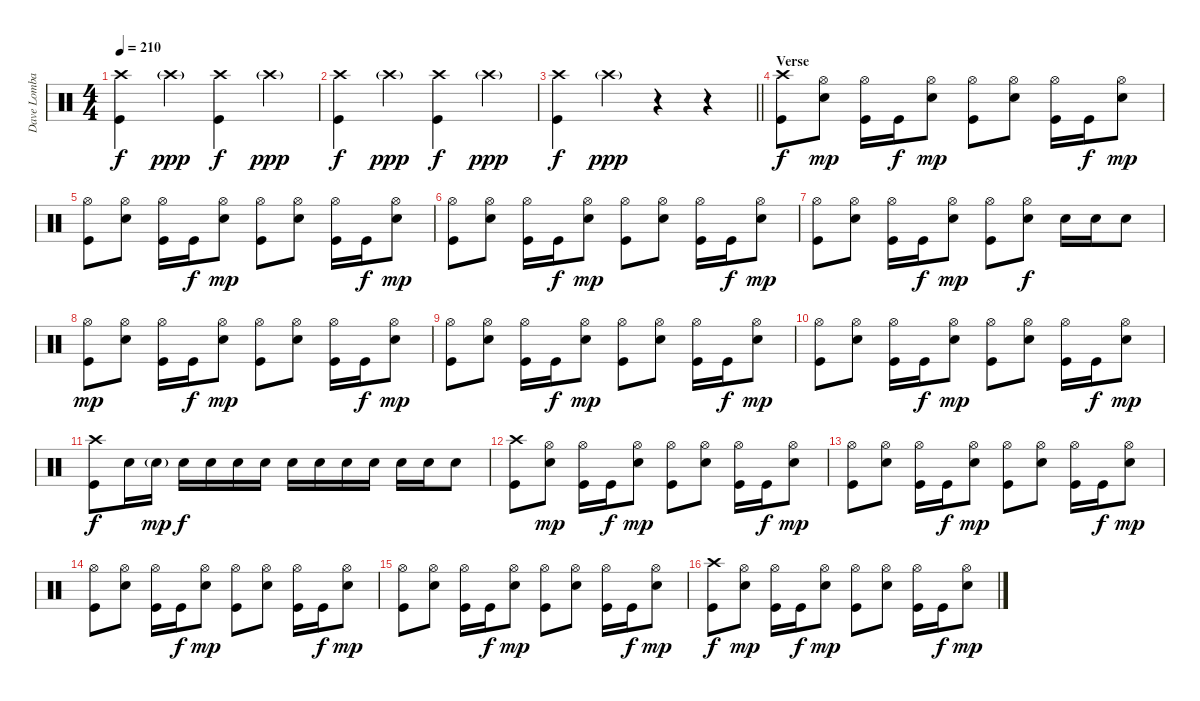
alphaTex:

\track ("Dave Lombardo" "Dave Lomba") {instrument percussion}
\staff {score}
\articulation defaults
\ts (4 4)
\tempo 210
\clef neutral
\ks c
("Crash high (hit)" "Kick (hit)").4{dy f} "Crash high (hit)"{g}.4{dy ppp} ("Crash high (hit)" "Kick (hit)").4{dy f} "Crash high (hit)"{g}.4{dy ppp} |
("Crash high (hit)" "Kick (hit)").4{dy f} "Crash high (hit)"{g}.4{dy ppp} ("Crash high (hit)" "Kick (hit)").4{dy f} "Crash high (hit)"{g}.4{dy ppp} |
\barLineRight lightlight
("Crash high (hit)" "Kick (hit)").4{dy f} "Crash high (hit)"{g}.4{dy ppp} r.4 r.4 |
\section ("" "Verse")
("Crash high (hit)" "Kick (hit)").8{dy f} ("Hi-Hat (open)" "Electric Snare (hit)").8{dy mp} ("Hi-Hat (open)" "Kick (hit)").16 "Kick (hit)".16{dy f} ("Hi-Hat (open)" "Electric Snare (hit)").8{dy mp} ("Hi-Hat (open)" "Kick (hit)").8 ("Hi-Hat (open)" "Electric Snare (hit)").8 ("Hi-Hat (open)" "Kick (hit)").16 "Kick (hit)".16{dy f} ("Hi-Hat (open)" "Electric Snare (hit)").8{dy mp} |
("Hi-Hat (open)" "Kick (hit)").8 ("Hi-Hat (open)" "Electric Snare (hit)").8 ("Hi-Hat (open)" "Kick (hit)").16 "Kick (hit)".16{dy f} ("Hi-Hat (open)" "Electric Snare (hit)").8{dy mp} ("Hi-Hat (open)" "Kick (hit)").8 ("Hi-Hat (open)" "Electric Snare (hit)").8 ("Hi-Hat (open)" "Kick (hit)").16 "Kick (hit)".16{dy f} ("Hi-Hat (open)" "Electric Snare (hit)").8{dy mp} |
("Hi-Hat (open)" "Kick (hit)").8 ("Hi-Hat (open)" "Electric Snare (hit)").8 ("Hi-Hat (open)" "Kick (hit)").16 "Kick (hit)".16{dy f} ("Hi-Hat (open)" "Electric Snare (hit)").8{dy mp} ("Hi-Hat (open)" "Kick (hit)").8 ("Hi-Hat (open)" "Electric Snare (hit)").8 ("Hi-Hat (open)" "Kick (hit)").16 "Kick (hit)".16{dy f} ("Hi-Hat (open)" "Electric Snare (hit)").8{dy mp} |
("Hi-Hat (open)" "Kick (hit)").8 ("Hi-Hat (open)" "Electric Snare (hit)").8 ("Hi-Hat (open)" "Kick (hit)").16 "Kick (hit)".16{dy f} ("Hi-Hat (open)" "Electric Snare (hit)").8{dy mp} ("Hi-Hat (open)" "Kick (hit)").8 ("Hi-Hat (open)" "Electric Snare (hit)").8{dy f} "Electric Snare (hit)".16 "Electric Snare (hit)".16 "Electric Snare (hit)".8 |
("Hi-Hat (open)" "Kick (hit)").8{dy mp} ("Hi-Hat (open)" "Electric Snare (hit)").8 ("Hi-Hat (open)" "Kick (hit)").16 "Kick (hit)".16{dy f} ("Hi-Hat (open)" "Electric Snare (hit)").8{dy mp} ("Hi-Hat (open)" "Kick (hit)").8 ("Hi-Hat (open)" "Electric Snare (hit)").8 ("Hi-Hat (open)" "Kick (hit)").16 "Kick (hit)".16{dy f} ("Hi-Hat (open)" "Electric Snare (hit)").8{dy mp} |
("Hi-Hat (open)" "Kick (hit)").8 ("Hi-Hat (open)" "Electric Snare (hit)").8 ("Hi-Hat (open)" "Kick (hit)").16 "Kick (hit)".16{dy f} ("Hi-Hat (open)" "Electric Snare (hit)").8{dy mp} ("Hi-Hat (open)" "Kick (hit)").8 ("Hi-Hat (open)" "Electric Snare (hit)").8 ("Hi-Hat (open)" "Kick (hit)").16 "Kick (hit)".16{dy f} ("Hi-Hat (open)" "Electric Snare (hit)").8{dy mp} |
("Hi-Hat (open)" "Kick (hit)").8 ("Hi-Hat (open)" "Electric Snare (hit)").8 ("Hi-Hat (open)" "Kick (hit)").16 "Kick (hit)".16{dy f} ("Hi-Hat (open)" "Electric Snare (hit)").8{dy mp} ("Hi-Hat (open)" "Kick (hit)").8 ("Hi-Hat (open)" "Electric Snare (hit)").8 ("Hi-Hat (open)" "Kick (hit)").16 "Kick (hit)".16{dy f} ("Hi-Hat (open)" "Electric Snare (hit)").8{dy mp} |
("Crash high (hit)" "Kick (hit)").8{dy f} "Electric Snare (hit)".16 "Electric Snare (hit)"{g}.16{dy mp} "Electric Snare (hit)".16{dy f} "Electric Snare (hit)".16 "Electric Snare (hit)".16 "Electric Snare (hit)".16 "Electric Snare (hit)".16 "Electric Snare (hit)".16 "Electric Snare (hit)".16 "Electric Snare (hit)".16 "Electric Snare (hit)".16 "Electric Snare (hit)".16 "Electric Snare (hit)".8 |
("Crash high (hit)" "Kick (hit)").8 ("Hi-Hat (open)" "Electric Snare (hit)").8{dy mp} ("Hi-Hat (open)" "Kick (hit)").16 "Kick (hit)".16{dy f} ("Hi-Hat (open)" "Electric Snare (hit)").8{dy mp} ("Hi-Hat (open)" "Kick (hit)").8 ("Hi-Hat (open)" "Electric Snare (hit)").8 ("Hi-Hat (open)" "Kick (hit)").16 "Kick (hit)".16{dy f} ("Hi-Hat (open)" "Electric Snare (hit)").8{dy mp} |
("Hi-Hat (open)" "Kick (hit)").8 ("Hi-Hat (open)" "Electric Snare (hit)").8 ("Hi-Hat (open)" "Kick (hit)").16 "Kick (hit)".16{dy f} ("Hi-Hat (open)" "Electric Snare (hit)").8{dy mp} ("Hi-Hat (open)" "Kick (hit)").8 ("Hi-Hat (open)" "Electric Snare (hit)").8 ("Hi-Hat (open)" "Kick (hit)").16 "Kick (hit)".16{dy f} ("Hi-Hat (open)" "Electric Snare (hit)").8{dy mp} |
("Hi-Hat (open)" "Kick (hit)").8 ("Hi-Hat (open)" "Electric Snare (hit)").8 ("Hi-Hat (open)" "Kick (hit)").16 "Kick (hit)".16{dy f} ("Hi-Hat (open)" "Electric Snare (hit)").8{dy mp} ("Hi-Hat (open)" "Kick (hit)").8 ("Hi-Hat (open)" "Electric Snare (hit)").8 ("Hi-Hat (open)" "Kick (hit)").16 "Kick (hit)".16{dy f} ("Hi-Hat (open)" "Electric Snare (hit)").8{dy mp} |
("Hi-Hat (open)" "Kick (hit)").8 ("Hi-Hat (open)" "Electric Snare (hit)").8 ("Hi-Hat (open)" "Kick (hit)").16 "Kick (hit)".16{dy f} ("Hi-Hat (open)" "Electric Snare (hit)").8{dy mp} ("Hi-Hat (open)" "Kick (hit)").8 ("Hi-Hat (open)" "Electric Snare (hit)").8 ("Hi-Hat (open)" "Kick (hit)").16 "Kick (hit)".16{dy f} ("Hi-Hat (open)" "Electric Snare (hit)").8{dy mp} |
("Crash high (hit)" "Kick (hit)").8{dy f} ("Hi-Hat (open)" "Electric Snare (hit)").8{dy mp} ("Hi-Hat (open)" "Kick (hit)").16 "Kick (hit)".16{dy f} ("Hi-Hat (open)" "Electric Snare (hit)").8{dy mp} ("Hi-Hat (open)" "Kick (hit)").8 ("Hi-Hat (open)" "Electric Snare (hit)").8 ("Hi-Hat (open)" "Kick (hit)").16 "Kick (hit)".16{dy f} ("Hi-Hat (open)" "Electric Snare (hit)").8{dy mp}
